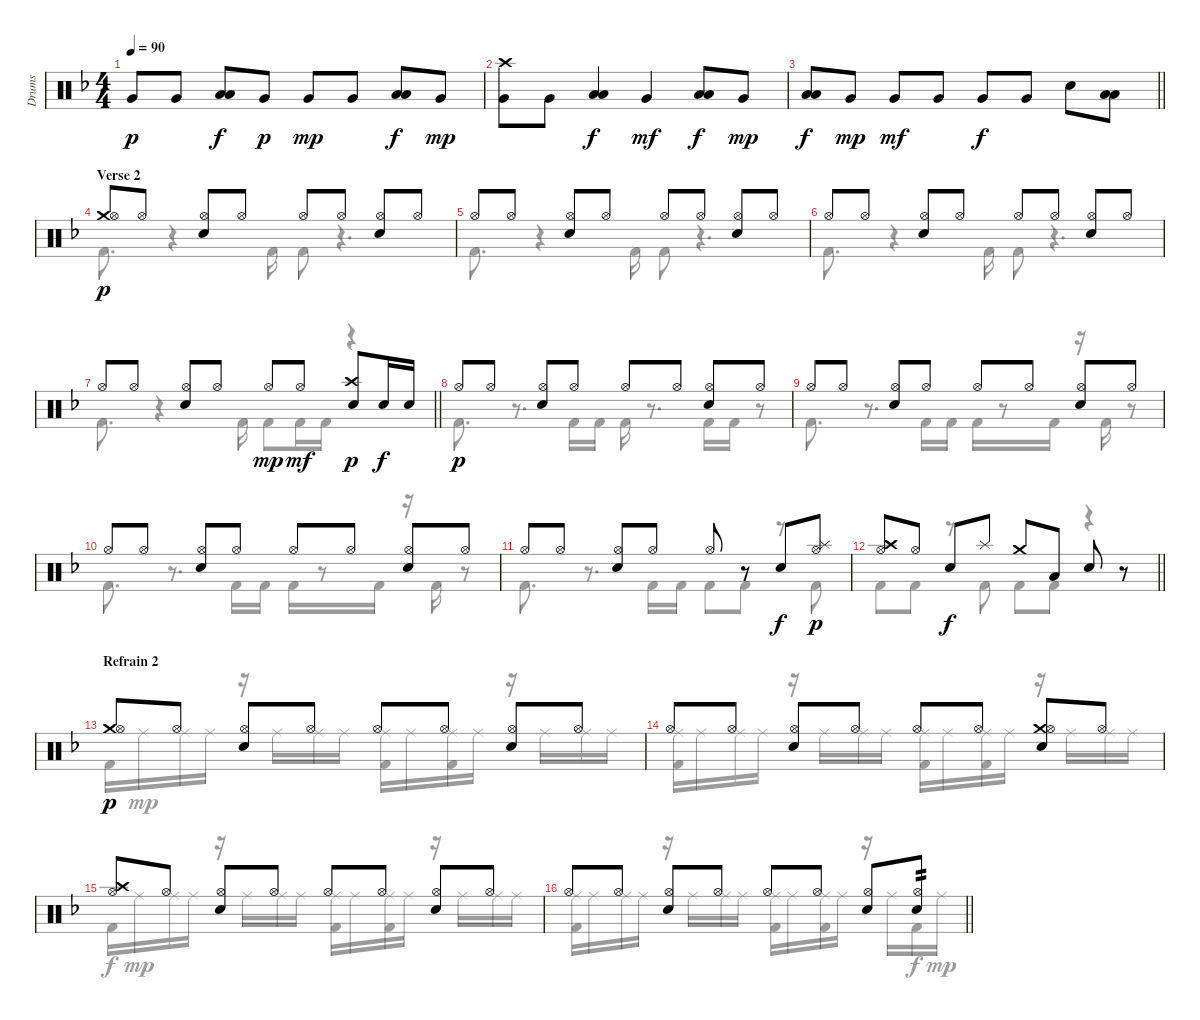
\track ("Drums" "Drums") {instrument percussion}
\staff {score}
\articulation defaults
\voice
\ts (4 4)
\tempo 90
\clef neutral
\ks dminor "Very Low Tom (hit)".8{dy p} "Very Low Tom (hit)".8
("Low Tom (hit)" "Low Floor Tom (hit)").8{dy f} "Very Low Tom (hit)".8{dy p} "Very Low Tom (hit)".8{dy mp} "Very Low Tom (hit)".8 ("Low Tom (hit)" "Low Floor Tom (hit)").8{dy f} "Very Low Tom (hit)".8{dy mp} |
("Crash high (hit)" "Very Low Tom (hit)").8 "Very Low Tom (hit)".8 ("Low Tom (hit)" "Low Floor Tom (hit)").4{dy f} "Very Low Tom (hit)".4{dy mf} ("Low Tom (hit)" "Low Floor Tom (hit)").8{dy f} "Very Low Tom (hit)".8{dy mp} |
\barLineRight lightlight
("Low Tom (hit)" "Low Floor Tom (hit)").8{dy f} "Very Low Tom (hit)".8{dy mp} "Very Low Tom (hit)".8{dy mf} "Very Low Tom (hit)".8 "Very Low Tom (hit)".8{dy f} "Very Low Tom (hit)".8 "Electric Snare (hit)".8 ("Low Tom (hit)" "Low Floor Tom (hit)").8 |
\section ("" "Verse 2")
("Crash medium (hit)" "Hi-Hat (open)").8{dy p} "Hi-Hat (open)".8 ("Electric Snare (hit)" "Hi-Hat (open)").8 "Hi-Hat (open)".8 "Hi-Hat (open)".8 "Hi-Hat (open)".8 ("Electric Snare (hit)" "Hi-Hat (open)").8 "Hi-Hat (open)".8 |
"Hi-Hat (open)".8 "Hi-Hat (open)".8 ("Electric Snare (hit)" "Hi-Hat (open)").8 "Hi-Hat (open)".8 "Hi-Hat (open)".8 "Hi-Hat (open)".8 ("Electric Snare (hit)" "Hi-Hat (open)").8 "Hi-Hat (open)".8 |
"Hi-Hat (open)".8 "Hi-Hat (open)".8 ("Electric Snare (hit)" "Hi-Hat (open)").8 "Hi-Hat (open)".8 "Hi-Hat (open)".8 "Hi-Hat (open)".8 ("Electric Snare (hit)" "Hi-Hat (open)").8 "Hi-Hat (open)".8 |
\barLineRight lightlight "Hi-Hat (open)".8 "Hi-Hat (open)".8
("Electric Snare (hit)" "Hi-Hat (open)").8 "Hi-Hat (open)".8 "Hi-Hat (open)".8{dy mp} "Hi-Hat (open)".8{dy mf} ("Crash high (hit)" "Electric Snare (hit)").8{dy p} "Electric Snare (hit)".16{dy f} "Electric Snare (hit)".16 |
"Hi-Hat (open)".8{dy p} "Hi-Hat (open)".8 ("Electric Snare (hit)" "Hi-Hat (open)").8 "Hi-Hat (open)".8 "Hi-Hat (open)".8 "Hi-Hat (open)".8 ("Electric Snare (hit)" "Hi-Hat (open)").8 "Hi-Hat (open)".8 |
"Hi-Hat (open)".8 "Hi-Hat (open)".8 ("Electric Snare (hit)" "Hi-Hat (open)").8 "Hi-Hat (open)".8 "Hi-Hat (open)".8 "Hi-Hat (open)".8 ("Electric Snare (hit)" "Hi-Hat (open)").8 "Hi-Hat (open)".8 |
"Hi-Hat (open)".8 "Hi-Hat (open)".8 ("Electric Snare (hit)" "Hi-Hat (open)").8 "Hi-Hat (open)".8 "Hi-Hat (open)".8 "Hi-Hat (open)".8 ("Electric Snare (hit)" "Hi-Hat (open)").8 "Hi-Hat (open)".8 |
"Hi-Hat (open)".8 "Hi-Hat (open)".8 ("Electric Snare (hit)" "Hi-Hat (open)").8 "Hi-Hat (open)".8 "Hi-Hat (open)".8 r.8 "Electric Snare (hit)".8{dy f} ("Splash (hit)" "Hi-Hat (open)").8{dy p} |
\barLineRight lightlight
("Crash high (hit)" "Hi-Hat (open)").8 "Hi-Hat (open)".8 "Electric Snare (hit)".8{dy f} "Splash (hit)".8 "Crash medium (hit)".8 "Low Floor Tom (hit)".8 "Electric Snare (hit)".8 r.8 |
\section ("" "Refrain 2")
("Crash medium (hit)" "Hi-Hat (open)").8{dy p} "Hi-Hat (open)".8 ("Electric Snare (hit)" "Hi-Hat (open)").8 "Hi-Hat (open)".8 "Hi-Hat (open)".8 "Hi-Hat (open)".8 ("Electric Snare (hit)" "Hi-Hat (open)").8 "Hi-Hat (open)".8 |
"Hi-Hat (open)".8 "Hi-Hat (open)".8 ("Electric Snare (hit)" "Hi-Hat (open)").8 "Hi-Hat (open)".8 "Hi-Hat (open)".8 "Hi-Hat (open)".8 ("Crash medium (hit)" "Electric Snare (hit)" "Hi-Hat (open)").8 "Hi-Hat (open)".8 |
("Crash high (hit)" "Hi-Hat (open)").8 "Hi-Hat (open)".8 ("Electric Snare (hit)" "Hi-Hat (open)").8 "Hi-Hat (open)".8 "Hi-Hat (open)".8 "Hi-Hat (open)".8 ("Electric Snare (hit)" "Hi-Hat (open)").8 "Hi-Hat (open)".8 |
\barLineRight lightlight "Hi-Hat (open)".8 "Hi-Hat (open)".8
("Electric Snare (hit)" "Hi-Hat (open)").8 "Hi-Hat (open)".8 "Hi-Hat (open)".8 "Hi-Hat (open)".8 ("Electric Snare (hit)" "Hi-Hat (open)").8 ("Electric Snare (hit)" "Hi-Hat (open)").8{tp 2}
\voice
\clef neutral
\ottava regular
\simile none
\ks dminor
|
|
\barLineRight lightlight
|
"Kick (hit) 2".8{d} r.4 "Kick (hit) 2".16 "Kick (hit) 2".8 r.4{d} |
"Kick (hit) 2".8{d} r.4 "Kick (hit) 2".16 "Kick (hit) 2".8 r.4{d} |
"Kick (hit) 2".8{d} r.4 "Kick (hit) 2".16 "Kick (hit) 2".8 r.4{d} |
\barLineRight lightlight "Kick (hit) 2".8{d}
r.4 "Kick (hit) 2".16 "Kick (hit) 2".8 "Kick (hit) 2".16 "Kick (hit) 2".16 r.4 |
"Kick (hit) 2".8{d} r.8{d} "Kick (hit) 2".16 "Kick (hit) 2".16 "Kick (hit) 2".16 r.8{d} "Kick (hit) 2".16 "Kick (hit) 2".16 r.8 |
"Kick (hit) 2".8{d} r.8{d} "Kick (hit) 2".16 "Kick (hit) 2".16 "Kick (hit) 2".16 r.8 "Kick (hit) 2".16 r.16 "Kick (hit) 2".16 r.8 |
"Kick (hit) 2".8{d} r.8{d} "Kick (hit) 2".16 "Kick (hit) 2".16 "Kick (hit) 2".16 r.8 "Kick (hit) 2".16 r.16 "Kick (hit) 2".16 r.8 |
"Kick (hit) 2".8{d} r.8{d} "Kick (hit) 2".16 "Kick (hit) 2".16 "Kick (hit) 2".8 "Kick (hit) 2".8 r.8 "Kick (hit) 2".8 |
\barLineRight lightlight "Kick (hit) 2".8 "Kick (hit) 2".8
r.8 "Kick (hit) 2".8 "Kick (hit) 2".8 "Kick (hit) 2".8 r.4 |
"Kick (hit) 2".16 "Ride (middle)".16{dy mp} "Ride (middle)".16 "Ride (middle)".16 r.16 "Ride (middle)".16 "Ride (middle)".16 "Ride (middle)".16 ("Ride (middle)" "Kick (hit) 2").16 "Ride (middle)".16 ("Ride (middle)" "Kick (hit) 2").16 "Ride (middle)".16 r.16 "Ride (middle)".16 "Ride (middle)".16 "Ride (middle)".16 |
("Ride (middle)" "Kick (hit) 2").16 "Ride (middle)".16 "Ride (middle)".16 "Ride (middle)".16 r.16 "Ride (middle)".16 "Ride (middle)".16 "Ride (middle)".16 ("Ride (middle)" "Kick (hit) 2").16 "Ride (middle)".16 ("Ride (middle)" "Kick (hit) 2").16 "Ride (middle)".16 r.16 "Ride (middle)".16 "Ride (middle)".16 "Ride (middle)".16 |
"Kick (hit) 2".16{dy f} "Ride (middle)".16{dy mp} "Ride (middle)".16 "Ride (middle)".16 r.16 "Ride (middle)".16 "Ride (middle)".16 "Ride (middle)".16 ("Ride (middle)" "Kick (hit) 2").16 "Ride (middle)".16 ("Ride (middle)" "Kick (hit) 2").16 "Ride (middle)".16 r.16 "Ride (middle)".16 "Ride (middle)".16 "Ride (middle)".16 |
\barLineRight lightlight
("Ride (middle)" "Kick (hit) 2").16 "Ride (middle)".16 "Ride (middle)".16 "Ride (middle)".16 r.16 "Ride (middle)".16 "Ride (middle)".16 "Ride (middle)".16 ("Ride (middle)" "Kick (hit) 2").16 "Ride (middle)".16 ("Ride (middle)" "Kick (hit) 2").16 "Ride (middle)".16 r.16 "Ride (middle)".16 "Kick (hit) 2".16{dy f} "Ride (middle)".16{dy mp}
